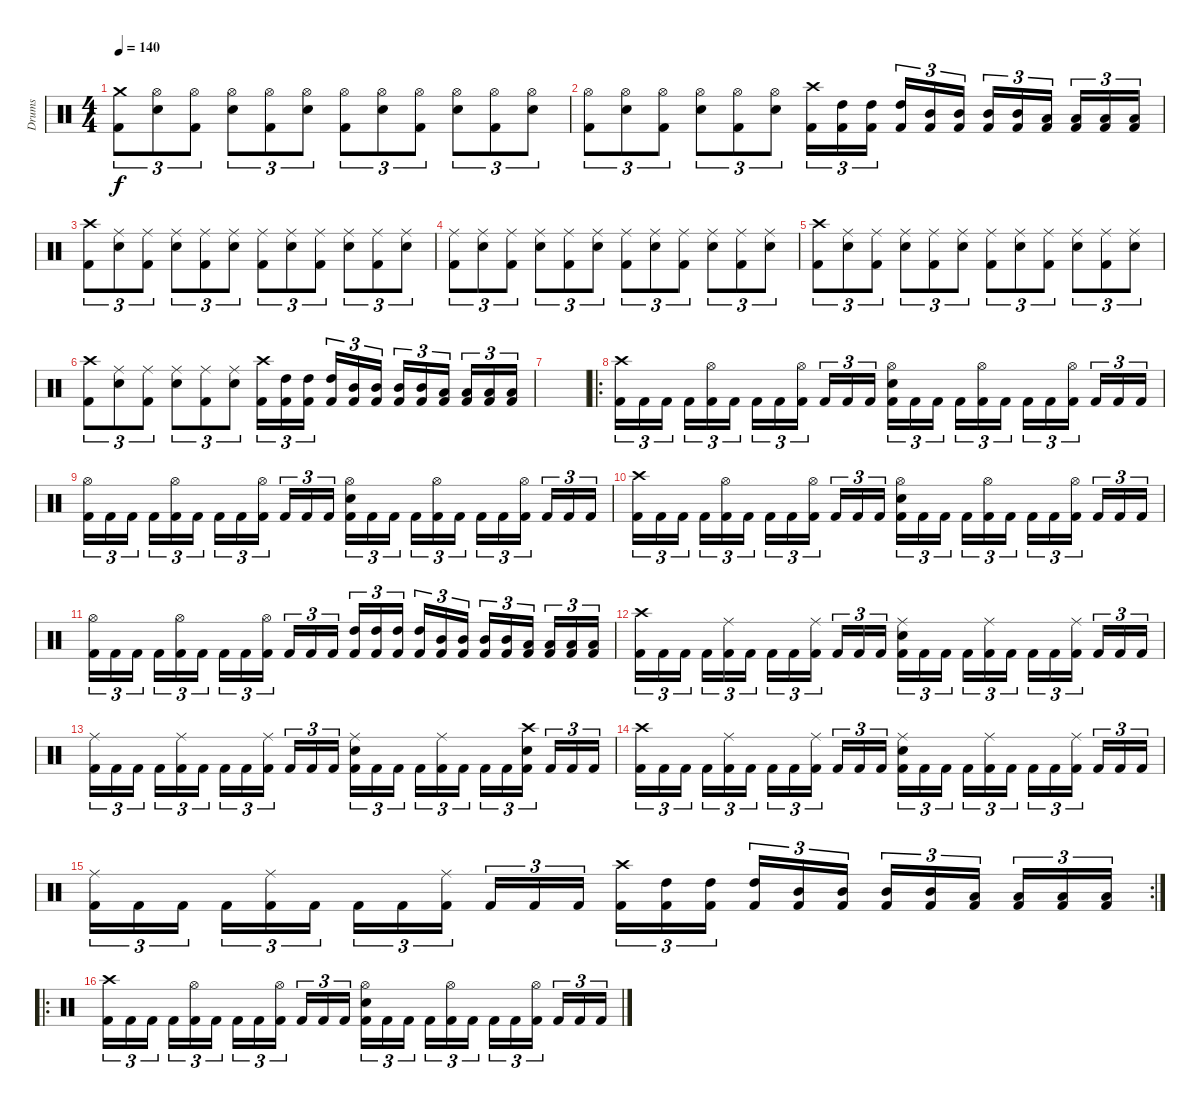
\track ("Drums" "Drums") {instrument percussion}
\staff {score}
\articulation defaults
\ts (4 4)
\tempo 140
\clef neutral
\ks c
("Kick (hit) 2" "Crash medium (hit)").8{tu (3 2) dy f} ("Snare (hit) 2" "Hi-Hat (open)").8{tu (3 2)} ("Kick (hit) 2" "Hi-Hat (open)").8{tu (3 2)} ("Snare (hit) 2" "Hi-Hat (open)").8{tu (3 2)} ("Kick (hit) 2" "Hi-Hat (open)").8{tu (3 2)} ("Snare (hit) 2" "Hi-Hat (open)").8{tu (3 2)} ("Kick (hit) 2" "Hi-Hat (open)").8{tu (3 2)} ("Snare (hit) 2" "Hi-Hat (open)").8{tu (3 2)} ("Kick (hit) 2" "Hi-Hat (open)").8{tu (3 2)} ("Snare (hit) 2" "Hi-Hat (open)").8{tu (3 2)} ("Kick (hit) 2" "Hi-Hat (open)").8{tu (3 2)} ("Snare (hit) 2" "Hi-Hat (open)").8{tu (3 2)} |
("Kick (hit) 2" "Hi-Hat (open)").8{tu (3 2)} ("Snare (hit) 2" "Hi-Hat (open)").8{tu (3 2)} ("Kick (hit) 2" "Hi-Hat (open)").8{tu (3 2)} ("Snare (hit) 2" "Hi-Hat (open)").8{tu (3 2)} ("Kick (hit) 2" "Hi-Hat (open)").8{tu (3 2)} ("Snare (hit) 2" "Hi-Hat (open)").8{tu (3 2)} ("Kick (hit) 2" "Crash high (hit)").16{tu (3 2)} ("Kick (hit) 2" "High Tom (hit)").16{tu (3 2)} ("Kick (hit) 2" "High Tom (hit)").16{tu (3 2)} ("Kick (hit) 2" "High Tom (hit)").16{tu (3 2)} ("Kick (hit) 2" "Mid Tom (hit)").16{tu (3 2)} ("Kick (hit) 2" "Mid Tom (hit)").16{tu (3 2)} ("Kick (hit) 2" "Mid Tom (hit)").16{tu (3 2)} ("Kick (hit) 2" "Mid Tom (hit)").16{tu (3 2)} ("Kick (hit) 2" "Low Tom (hit)").16{tu (3 2)} ("Kick (hit) 2" "Low Tom (hit)").16{tu (3 2)} ("Kick (hit) 2" "Low Tom (hit)").16{tu (3 2)} ("Kick (hit) 2" "Low Tom (hit)").16{tu (3 2)} |
("Kick (hit) 2" "Crash high (hit)").8{tu (3 2)} ("Snare (hit) 2" "Ride (middle)").8{tu (3 2)} ("Kick (hit) 2" "Ride (middle)").8{tu (3 2)} ("Snare (hit) 2" "Ride (middle)").8{tu (3 2)} ("Kick (hit) 2" "Ride (middle)").8{tu (3 2)} ("Snare (hit) 2" "Ride (middle)").8{tu (3 2)} ("Kick (hit) 2" "Ride (middle)").8{tu (3 2)} ("Snare (hit) 2" "Ride (middle)").8{tu (3 2)} ("Kick (hit) 2" "Ride (middle)").8{tu (3 2)} ("Snare (hit) 2" "Ride (middle)").8{tu (3 2)} ("Kick (hit) 2" "Ride (middle)").8{tu (3 2)} ("Snare (hit) 2" "Ride (middle)").8{tu (3 2)} |
("Kick (hit) 2" "Ride (middle)").8{tu (3 2)} ("Snare (hit) 2" "Ride (middle)").8{tu (3 2)} ("Kick (hit) 2" "Ride (middle)").8{tu (3 2)} ("Snare (hit) 2" "Ride (middle)").8{tu (3 2)} ("Kick (hit) 2" "Ride (middle)").8{tu (3 2)} ("Snare (hit) 2" "Ride (middle)").8{tu (3 2)} ("Kick (hit) 2" "Ride (middle)").8{tu (3 2)} ("Snare (hit) 2" "Ride (middle)").8{tu (3 2)} ("Kick (hit) 2" "Ride (middle)").8{tu (3 2)} ("Snare (hit) 2" "Ride (middle)").8{tu (3 2)} ("Kick (hit) 2" "Ride (middle)").8{tu (3 2)} ("Snare (hit) 2" "Ride (middle)").8{tu (3 2)} |
("Kick (hit) 2" "Crash high (hit)").8{tu (3 2)} ("Snare (hit) 2" "Ride (middle)").8{tu (3 2)} ("Kick (hit) 2" "Ride (middle)").8{tu (3 2)} ("Snare (hit) 2" "Ride (middle)").8{tu (3 2)} ("Kick (hit) 2" "Ride (middle)").8{tu (3 2)} ("Snare (hit) 2" "Ride (middle)").8{tu (3 2)} ("Kick (hit) 2" "Ride (middle)").8{tu (3 2)} ("Snare (hit) 2" "Ride (middle)").8{tu (3 2)} ("Kick (hit) 2" "Ride (middle)").8{tu (3 2)} ("Snare (hit) 2" "Ride (middle)").8{tu (3 2)} ("Kick (hit) 2" "Ride (middle)").8{tu (3 2)} ("Snare (hit) 2" "Ride (middle)").8{tu (3 2)} |
("Kick (hit) 2" "Crash high (hit)").8{tu (3 2)} ("Snare (hit) 2" "Ride (middle)").8{tu (3 2)} ("Kick (hit) 2" "Ride (middle)").8{tu (3 2)} ("Snare (hit) 2" "Ride (middle)").8{tu (3 2)} ("Kick (hit) 2" "Ride (middle)").8{tu (3 2)} ("Snare (hit) 2" "Ride (middle)").8{tu (3 2)} ("Kick (hit) 2" "Crash high (hit)").16{tu (3 2)} ("Kick (hit) 2" "High Tom (hit)").16{tu (3 2)} ("Kick (hit) 2" "High Tom (hit)").16{tu (3 2)} ("Kick (hit) 2" "High Tom (hit)").16{tu (3 2)} ("Kick (hit) 2" "Mid Tom (hit)").16{tu (3 2)} ("Kick (hit) 2" "Mid Tom (hit)").16{tu (3 2)} ("Kick (hit) 2" "Mid Tom (hit)").16{tu (3 2)} ("Kick (hit) 2" "Mid Tom (hit)").16{tu (3 2)} ("Kick (hit) 2" "Low Tom (hit)").16{tu (3 2)} ("Kick (hit) 2" "Low Tom (hit)").16{tu (3 2)} ("Kick (hit) 2" "Low Tom (hit)").16{tu (3 2)} ("Kick (hit) 2" "Low Tom (hit)").16{tu (3 2)} |
|
\ro
("Kick (hit) 2" "Crash high (hit)").16{tu (3 2)} "Kick (hit) 2".16{tu (3 2)} "Kick (hit) 2".16{tu (3 2)} "Kick (hit) 2".16{tu (3 2)} ("Kick (hit) 2" "Hi-Hat (open)").16{tu (3 2)} "Kick (hit) 2".16{tu (3 2)} "Kick (hit) 2".16{tu (3 2)} "Kick (hit) 2".16{tu (3 2)} ("Kick (hit) 2" "Hi-Hat (open)").16{tu (3 2)} "Kick (hit) 2".16{tu (3 2)} "Kick (hit) 2".16{tu (3 2)} "Kick (hit) 2".16{tu (3 2)} ("Kick (hit) 2" "Snare (hit) 2" "Hi-Hat (open)").16{tu (3 2)} "Kick (hit) 2".16{tu (3 2)} "Kick (hit) 2".16{tu (3 2)} "Kick (hit) 2".16{tu (3 2)} ("Kick (hit) 2" "Hi-Hat (open)").16{tu (3 2)} "Kick (hit) 2".16{tu (3 2)} "Kick (hit) 2".16{tu (3 2)} "Kick (hit) 2".16{tu (3 2)} ("Kick (hit) 2" "Hi-Hat (open)").16{tu (3 2)} "Kick (hit) 2".16{tu (3 2)} "Kick (hit) 2".16{tu (3 2)} "Kick (hit) 2".16{tu (3 2)} |
("Kick (hit) 2" "Hi-Hat (open)").16{tu (3 2)} "Kick (hit) 2".16{tu (3 2)} "Kick (hit) 2".16{tu (3 2)} "Kick (hit) 2".16{tu (3 2)} ("Kick (hit) 2" "Hi-Hat (open)").16{tu (3 2)} "Kick (hit) 2".16{tu (3 2)} "Kick (hit) 2".16{tu (3 2)} "Kick (hit) 2".16{tu (3 2)} ("Kick (hit) 2" "Hi-Hat (open)").16{tu (3 2)} "Kick (hit) 2".16{tu (3 2)} "Kick (hit) 2".16{tu (3 2)} "Kick (hit) 2".16{tu (3 2)} ("Kick (hit) 2" "Snare (hit) 2" "Hi-Hat (open)").16{tu (3 2)} "Kick (hit) 2".16{tu (3 2)} "Kick (hit) 2".16{tu (3 2)} "Kick (hit) 2".16{tu (3 2)} ("Kick (hit) 2" "Hi-Hat (open)").16{tu (3 2)} "Kick (hit) 2".16{tu (3 2)} "Kick (hit) 2".16{tu (3 2)} "Kick (hit) 2".16{tu (3 2)} ("Kick (hit) 2" "Hi-Hat (open)").16{tu (3 2)} "Kick (hit) 2".16{tu (3 2)} "Kick (hit) 2".16{tu (3 2)} "Kick (hit) 2".16{tu (3 2)} |
("Kick (hit) 2" "Crash high (hit)").16{tu (3 2)} "Kick (hit) 2".16{tu (3 2)} "Kick (hit) 2".16{tu (3 2)} "Kick (hit) 2".16{tu (3 2)} ("Kick (hit) 2" "Hi-Hat (open)").16{tu (3 2)} "Kick (hit) 2".16{tu (3 2)} "Kick (hit) 2".16{tu (3 2)} "Kick (hit) 2".16{tu (3 2)} ("Kick (hit) 2" "Hi-Hat (open)").16{tu (3 2)} "Kick (hit) 2".16{tu (3 2)} "Kick (hit) 2".16{tu (3 2)} "Kick (hit) 2".16{tu (3 2)} ("Kick (hit) 2" "Snare (hit) 2" "Hi-Hat (open)").16{tu (3 2)} "Kick (hit) 2".16{tu (3 2)} "Kick (hit) 2".16{tu (3 2)} "Kick (hit) 2".16{tu (3 2)} ("Kick (hit) 2" "Hi-Hat (open)").16{tu (3 2)} "Kick (hit) 2".16{tu (3 2)} "Kick (hit) 2".16{tu (3 2)} "Kick (hit) 2".16{tu (3 2)} ("Kick (hit) 2" "Hi-Hat (open)").16{tu (3 2)} "Kick (hit) 2".16{tu (3 2)} "Kick (hit) 2".16{tu (3 2)} "Kick (hit) 2".16{tu (3 2)} |
("Kick (hit) 2" "Hi-Hat (open)").16{tu (3 2)} "Kick (hit) 2".16{tu (3 2)} "Kick (hit) 2".16{tu (3 2)} "Kick (hit) 2".16{tu (3 2)} ("Kick (hit) 2" "Hi-Hat (open)").16{tu (3 2)} "Kick (hit) 2".16{tu (3 2)} "Kick (hit) 2".16{tu (3 2)} "Kick (hit) 2".16{tu (3 2)} ("Kick (hit) 2" "Hi-Hat (open)").16{tu (3 2)} "Kick (hit) 2".16{tu (3 2)} "Kick (hit) 2".16{tu (3 2)} "Kick (hit) 2".16{tu (3 2)} ("Kick (hit) 2" "High Tom (hit)").16{tu (3 2)} ("Kick (hit) 2" "High Tom (hit)").16{tu (3 2)} ("Kick (hit) 2" "High Tom (hit)").16{tu (3 2)} ("Kick (hit) 2" "High Tom (hit)").16{tu (3 2)} ("Kick (hit) 2" "Mid Tom (hit)").16{tu (3 2)} ("Kick (hit) 2" "Mid Tom (hit)").16{tu (3 2)} ("Kick (hit) 2" "Mid Tom (hit)").16{tu (3 2)} ("Kick (hit) 2" "Mid Tom (hit)").16{tu (3 2)} ("Kick (hit) 2" "Low Tom (hit)").16{tu (3 2)} ("Kick (hit) 2" "Low Tom (hit)").16{tu (3 2)} ("Kick (hit) 2" "Low Tom (hit)").16{tu (3 2)} ("Kick (hit) 2" "Low Tom (hit)").16{tu (3 2)} |
("Kick (hit) 2" "Crash high (hit)").16{tu (3 2)} "Kick (hit) 2".16{tu (3 2)} "Kick (hit) 2".16{tu (3 2)} "Kick (hit) 2".16{tu (3 2)} ("Kick (hit) 2" "Ride (middle)").16{tu (3 2)} "Kick (hit) 2".16{tu (3 2)} "Kick (hit) 2".16{tu (3 2)} "Kick (hit) 2".16{tu (3 2)} ("Kick (hit) 2" "Ride (middle)").16{tu (3 2)} "Kick (hit) 2".16{tu (3 2)} "Kick (hit) 2".16{tu (3 2)} "Kick (hit) 2".16{tu (3 2)} ("Kick (hit) 2" "Snare (hit) 2" "Ride (middle)").16{tu (3 2)} "Kick (hit) 2".16{tu (3 2)} "Kick (hit) 2".16{tu (3 2)} "Kick (hit) 2".16{tu (3 2)} ("Kick (hit) 2" "Ride (middle)").16{tu (3 2)} "Kick (hit) 2".16{tu (3 2)} "Kick (hit) 2".16{tu (3 2)} "Kick (hit) 2".16{tu (3 2)} ("Kick (hit) 2" "Ride (middle)").16{tu (3 2)} "Kick (hit) 2".16{tu (3 2)} "Kick (hit) 2".16{tu (3 2)} "Kick (hit) 2".16{tu (3 2)} |
("Kick (hit) 2" "Ride (middle)").16{tu (3 2)} "Kick (hit) 2".16{tu (3 2)} "Kick (hit) 2".16{tu (3 2)} "Kick (hit) 2".16{tu (3 2)} ("Kick (hit) 2" "Ride (middle)").16{tu (3 2)} "Kick (hit) 2".16{tu (3 2)} "Kick (hit) 2".16{tu (3 2)} "Kick (hit) 2".16{tu (3 2)} ("Kick (hit) 2" "Ride (middle)").16{tu (3 2)} "Kick (hit) 2".16{tu (3 2)} "Kick (hit) 2".16{tu (3 2)} "Kick (hit) 2".16{tu (3 2)} ("Kick (hit) 2" "Snare (hit) 2" "Ride (middle)").16{tu (3 2)} "Kick (hit) 2".16{tu (3 2)} "Kick (hit) 2".16{tu (3 2)} "Kick (hit) 2".16{tu (3 2)} ("Kick (hit) 2" "Ride (middle)").16{tu (3 2)} "Kick (hit) 2".16{tu (3 2)} "Kick (hit) 2".16{tu (3 2)} "Kick (hit) 2".16{tu (3 2)} ("Kick (hit) 2" "Snare (hit) 2" "Crash high (hit)").16{tu (3 2)} "Kick (hit) 2".16{tu (3 2)} "Kick (hit) 2".16{tu (3 2)} "Kick (hit) 2".16{tu (3 2)} |
("Kick (hit) 2" "Crash high (hit)").16{tu (3 2)} "Kick (hit) 2".16{tu (3 2)} "Kick (hit) 2".16{tu (3 2)} "Kick (hit) 2".16{tu (3 2)} ("Kick (hit) 2" "Ride (middle)").16{tu (3 2)} "Kick (hit) 2".16{tu (3 2)} "Kick (hit) 2".16{tu (3 2)} "Kick (hit) 2".16{tu (3 2)} ("Kick (hit) 2" "Ride (middle)").16{tu (3 2)} "Kick (hit) 2".16{tu (3 2)} "Kick (hit) 2".16{tu (3 2)} "Kick (hit) 2".16{tu (3 2)} ("Kick (hit) 2" "Snare (hit) 2" "Ride (middle)").16{tu (3 2)} "Kick (hit) 2".16{tu (3 2)} "Kick (hit) 2".16{tu (3 2)} "Kick (hit) 2".16{tu (3 2)} ("Kick (hit) 2" "Ride (middle)").16{tu (3 2)} "Kick (hit) 2".16{tu (3 2)} "Kick (hit) 2".16{tu (3 2)} "Kick (hit) 2".16{tu (3 2)} ("Kick (hit) 2" "Ride (middle)").16{tu (3 2)} "Kick (hit) 2".16{tu (3 2)} "Kick (hit) 2".16{tu (3 2)} "Kick (hit) 2".16{tu (3 2)} |
\rc 2
("Kick (hit) 2" "Ride (middle)").16{tu (3 2)} "Kick (hit) 2".16{tu (3 2)} "Kick (hit) 2".16{tu (3 2)} "Kick (hit) 2".16{tu (3 2)} ("Kick (hit) 2" "Ride (middle)").16{tu (3 2)} "Kick (hit) 2".16{tu (3 2)} "Kick (hit) 2".16{tu (3 2)} "Kick (hit) 2".16{tu (3 2)} ("Kick (hit) 2" "Ride (middle)").16{tu (3 2)} "Kick (hit) 2".16{tu (3 2)} "Kick (hit) 2".16{tu (3 2)} "Kick (hit) 2".16{tu (3 2)} ("Kick (hit) 2" "Crash high (hit)").16{tu (3 2)} ("Kick (hit) 2" "High Tom (hit)").16{tu (3 2)} ("Kick (hit) 2" "High Tom (hit)").16{tu (3 2)} ("Kick (hit) 2" "High Tom (hit)").16{tu (3 2)} ("Kick (hit) 2" "Mid Tom (hit)").16{tu (3 2)} ("Kick (hit) 2" "Mid Tom (hit)").16{tu (3 2)} ("Kick (hit) 2" "Mid Tom (hit)").16{tu (3 2)} ("Kick (hit) 2" "Mid Tom (hit)").16{tu (3 2)} ("Kick (hit) 2" "Low Tom (hit)").16{tu (3 2)} ("Kick (hit) 2" "Low Tom (hit)").16{tu (3 2)} ("Kick (hit) 2" "Low Tom (hit)").16{tu (3 2)} ("Kick (hit) 2" "Low Tom (hit)").16{tu (3 2)} |
\ro
("Kick (hit) 2" "Crash high (hit)").16{tu (3 2)} "Kick (hit) 2".16{tu (3 2)} "Kick (hit) 2".16{tu (3 2)} "Kick (hit) 2".16{tu (3 2)} ("Kick (hit) 2" "Hi-Hat (open)").16{tu (3 2)} "Kick (hit) 2".16{tu (3 2)} "Kick (hit) 2".16{tu (3 2)} "Kick (hit) 2".16{tu (3 2)} ("Kick (hit) 2" "Hi-Hat (open)").16{tu (3 2)} "Kick (hit) 2".16{tu (3 2)} "Kick (hit) 2".16{tu (3 2)} "Kick (hit) 2".16{tu (3 2)} ("Kick (hit) 2" "Snare (hit) 2" "Hi-Hat (open)").16{tu (3 2)} "Kick (hit) 2".16{tu (3 2)} "Kick (hit) 2".16{tu (3 2)} "Kick (hit) 2".16{tu (3 2)} ("Kick (hit) 2" "Hi-Hat (open)").16{tu (3 2)} "Kick (hit) 2".16{tu (3 2)} "Kick (hit) 2".16{tu (3 2)} "Kick (hit) 2".16{tu (3 2)} ("Kick (hit) 2" "Hi-Hat (open)").16{tu (3 2)} "Kick (hit) 2".16{tu (3 2)} "Kick (hit) 2".16{tu (3 2)} "Kick (hit) 2".16{tu (3 2)}
